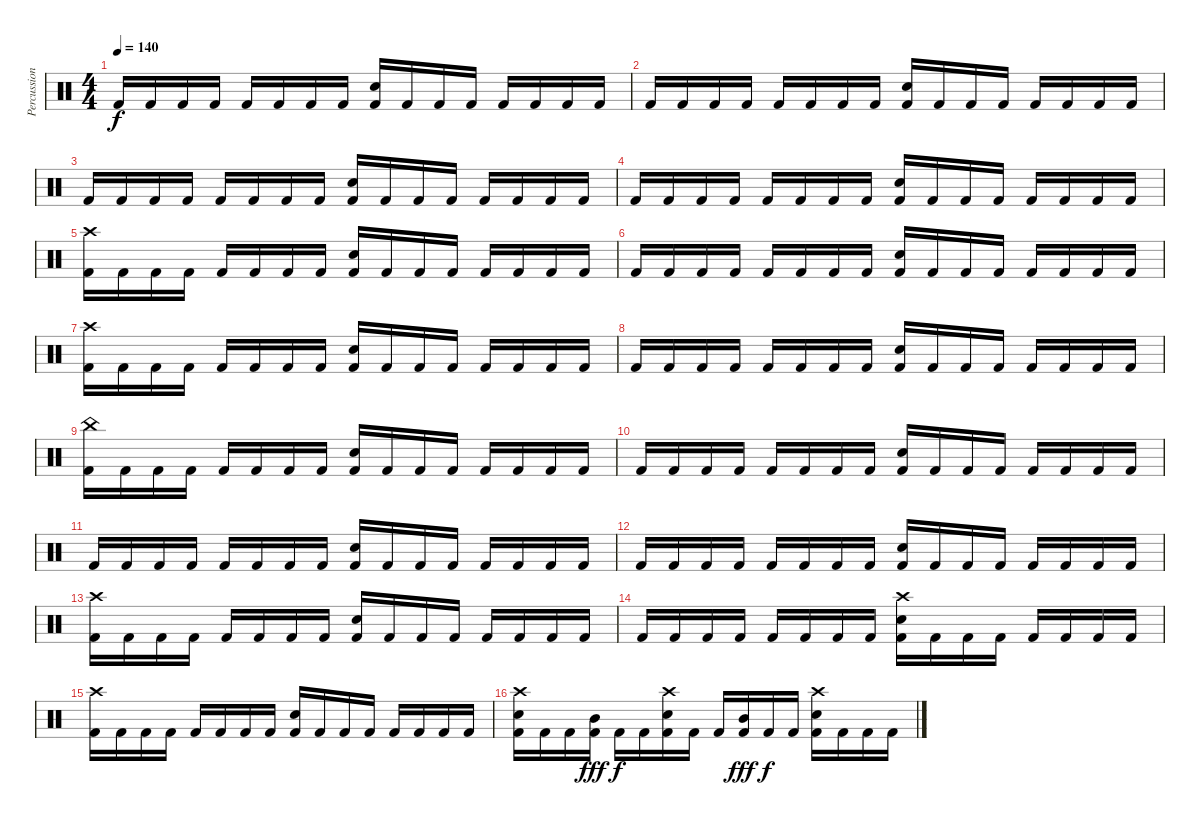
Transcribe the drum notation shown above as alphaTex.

\track ("Percussion" "Percussion") {instrument percussion}
\staff {score}
\articulation defaults
\ts (4 4)
\tempo 140
\clef neutral
\ks c "Kick (hit) 2".16{dy f} "Kick (hit) 2".16 "Kick (hit) 2".16 "Kick (hit) 2".16 "Kick (hit) 2".16 "Kick (hit) 2".16 "Kick (hit) 2".16 "Kick (hit) 2".16
("Snare (hit) 2" "Kick (hit) 2").16 "Kick (hit) 2".16 "Kick (hit) 2".16 "Kick (hit) 2".16 "Kick (hit) 2".16 "Kick (hit) 2".16 "Kick (hit) 2".16 "Kick (hit) 2".16 |
"Kick (hit) 2".16 "Kick (hit) 2".16 "Kick (hit) 2".16 "Kick (hit) 2".16 "Kick (hit) 2".16 "Kick (hit) 2".16 "Kick (hit) 2".16 "Kick (hit) 2".16 ("Snare (hit) 2" "Kick (hit) 2").16 "Kick (hit) 2".16 "Kick (hit) 2".16 "Kick (hit) 2".16 "Kick (hit) 2".16 "Kick (hit) 2".16 "Kick (hit) 2".16 "Kick (hit) 2".16 |
"Kick (hit) 2".16 "Kick (hit) 2".16 "Kick (hit) 2".16 "Kick (hit) 2".16 "Kick (hit) 2".16 "Kick (hit) 2".16 "Kick (hit) 2".16 "Kick (hit) 2".16 ("Snare (hit) 2" "Kick (hit) 2").16 "Kick (hit) 2".16 "Kick (hit) 2".16 "Kick (hit) 2".16 "Kick (hit) 2".16 "Kick (hit) 2".16 "Kick (hit) 2".16 "Kick (hit) 2".16 |
"Kick (hit) 2".16 "Kick (hit) 2".16 "Kick (hit) 2".16 "Kick (hit) 2".16 "Kick (hit) 2".16 "Kick (hit) 2".16 "Kick (hit) 2".16 "Kick (hit) 2".16 ("Snare (hit) 2" "Kick (hit) 2").16 "Kick (hit) 2".16 "Kick (hit) 2".16 "Kick (hit) 2".16 "Kick (hit) 2".16 "Kick (hit) 2".16 "Kick (hit) 2".16 "Kick (hit) 2".16 |
("Crash high (hit)" "Kick (hit) 2").16 "Kick (hit) 2".16 "Kick (hit) 2".16 "Kick (hit) 2".16 "Kick (hit) 2".16 "Kick (hit) 2".16 "Kick (hit) 2".16 "Kick (hit) 2".16 ("Snare (hit) 2" "Kick (hit) 2").16 "Kick (hit) 2".16 "Kick (hit) 2".16 "Kick (hit) 2".16 "Kick (hit) 2".16 "Kick (hit) 2".16 "Kick (hit) 2".16 "Kick (hit) 2".16 |
"Kick (hit) 2".16 "Kick (hit) 2".16 "Kick (hit) 2".16 "Kick (hit) 2".16 "Kick (hit) 2".16 "Kick (hit) 2".16 "Kick (hit) 2".16 "Kick (hit) 2".16 ("Snare (hit) 2" "Kick (hit) 2").16 "Kick (hit) 2".16 "Kick (hit) 2".16 "Kick (hit) 2".16 "Kick (hit) 2".16 "Kick (hit) 2".16 "Kick (hit) 2".16 "Kick (hit) 2".16 |
("Crash high (hit)" "Kick (hit) 2").16 "Kick (hit) 2".16 "Kick (hit) 2".16 "Kick (hit) 2".16 "Kick (hit) 2".16 "Kick (hit) 2".16 "Kick (hit) 2".16 "Kick (hit) 2".16 ("Snare (hit) 2" "Kick (hit) 2").16 "Kick (hit) 2".16 "Kick (hit) 2".16 "Kick (hit) 2".16 "Kick (hit) 2".16 "Kick (hit) 2".16 "Kick (hit) 2".16 "Kick (hit) 2".16 |
"Kick (hit) 2".16 "Kick (hit) 2".16 "Kick (hit) 2".16 "Kick (hit) 2".16 "Kick (hit) 2".16 "Kick (hit) 2".16 "Kick (hit) 2".16 "Kick (hit) 2".16 ("Snare (hit) 2" "Kick (hit) 2").16 "Kick (hit) 2".16 "Kick (hit) 2".16 "Kick (hit) 2".16 "Kick (hit) 2".16 "Kick (hit) 2".16 "Kick (hit) 2".16 "Kick (hit) 2".16 |
("China (hit)" "Kick (hit) 2").16 "Kick (hit) 2".16 "Kick (hit) 2".16 "Kick (hit) 2".16 "Kick (hit) 2".16 "Kick (hit) 2".16 "Kick (hit) 2".16 "Kick (hit) 2".16 ("Snare (hit) 2" "Kick (hit) 2").16 "Kick (hit) 2".16 "Kick (hit) 2".16 "Kick (hit) 2".16 "Kick (hit) 2".16 "Kick (hit) 2".16 "Kick (hit) 2".16 "Kick (hit) 2".16 |
"Kick (hit) 2".16 "Kick (hit) 2".16 "Kick (hit) 2".16 "Kick (hit) 2".16 "Kick (hit) 2".16 "Kick (hit) 2".16 "Kick (hit) 2".16 "Kick (hit) 2".16 ("Snare (hit) 2" "Kick (hit) 2").16 "Kick (hit) 2".16 "Kick (hit) 2".16 "Kick (hit) 2".16 "Kick (hit) 2".16 "Kick (hit) 2".16 "Kick (hit) 2".16 "Kick (hit) 2".16 |
"Kick (hit) 2".16 "Kick (hit) 2".16 "Kick (hit) 2".16 "Kick (hit) 2".16 "Kick (hit) 2".16 "Kick (hit) 2".16 "Kick (hit) 2".16 "Kick (hit) 2".16 ("Snare (hit) 2" "Kick (hit) 2").16 "Kick (hit) 2".16 "Kick (hit) 2".16 "Kick (hit) 2".16 "Kick (hit) 2".16 "Kick (hit) 2".16 "Kick (hit) 2".16 "Kick (hit) 2".16 |
"Kick (hit) 2".16 "Kick (hit) 2".16 "Kick (hit) 2".16 "Kick (hit) 2".16 "Kick (hit) 2".16 "Kick (hit) 2".16 "Kick (hit) 2".16 "Kick (hit) 2".16 ("Snare (hit) 2" "Kick (hit) 2").16 "Kick (hit) 2".16 "Kick (hit) 2".16 "Kick (hit) 2".16 "Kick (hit) 2".16 "Kick (hit) 2".16 "Kick (hit) 2".16 "Kick (hit) 2".16 |
("Crash high (hit)" "Kick (hit) 2").16 "Kick (hit) 2".16 "Kick (hit) 2".16 "Kick (hit) 2".16 "Kick (hit) 2".16 "Kick (hit) 2".16 "Kick (hit) 2".16 "Kick (hit) 2".16 ("Snare (hit) 2" "Kick (hit) 2").16 "Kick (hit) 2".16 "Kick (hit) 2".16 "Kick (hit) 2".16 "Kick (hit) 2".16 "Kick (hit) 2".16 "Kick (hit) 2".16 "Kick (hit) 2".16 |
"Kick (hit) 2".16 "Kick (hit) 2".16 "Kick (hit) 2".16 "Kick (hit) 2".16 "Kick (hit) 2".16 "Kick (hit) 2".16 "Kick (hit) 2".16 "Kick (hit) 2".16 ("Crash high (hit)" "Snare (hit) 2" "Kick (hit) 2").16 "Kick (hit) 2".16 "Kick (hit) 2".16 "Kick (hit) 2".16 "Kick (hit) 2".16 "Kick (hit) 2".16 "Kick (hit) 2".16 "Kick (hit) 2".16 |
("Crash high (hit)" "Kick (hit) 2").16 "Kick (hit) 2".16 "Kick (hit) 2".16 "Kick (hit) 2".16 "Kick (hit) 2".16 "Kick (hit) 2".16 "Kick (hit) 2".16 "Kick (hit) 2".16 ("Snare (hit) 2" "Kick (hit) 2").16 "Kick (hit) 2".16 "Kick (hit) 2".16 "Kick (hit) 2".16 "Kick (hit) 2".16 "Kick (hit) 2".16 "Kick (hit) 2".16 "Kick (hit) 2".16 |
("Crash high (hit)" "Snare (hit) 2" "Kick (hit) 2").16 "Kick (hit) 2".16 "Kick (hit) 2".16 ("Mid Tom (hit)" "Kick (hit) 2").16{dy fff} "Kick (hit) 2".16{dy f} "Kick (hit) 2".16 ("Crash high (hit)" "Snare (hit) 2" "Kick (hit) 2").16 "Kick (hit) 2".16 "Kick (hit) 2".16 ("Mid Tom (hit)" "Kick (hit) 2").16{dy fff} "Kick (hit) 2".16{dy f} "Kick (hit) 2".16 ("Crash high (hit)" "Snare (hit) 2" "Kick (hit) 2").16 "Kick (hit) 2".16 "Kick (hit) 2".16 "Kick (hit) 2".16
